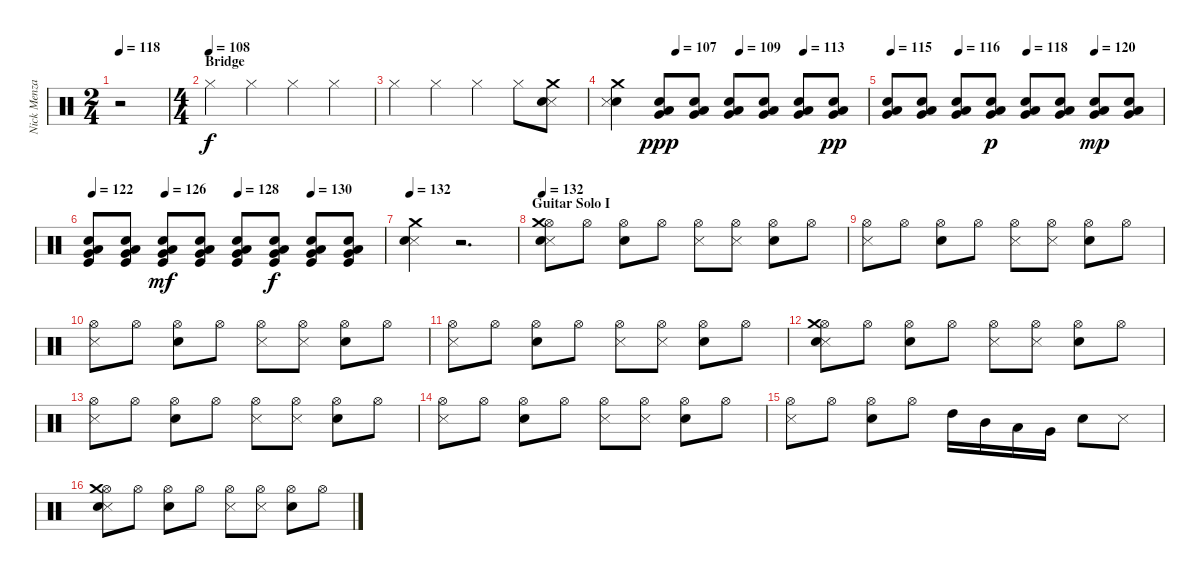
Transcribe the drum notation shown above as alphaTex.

\track ("Nick Menza (Drums)" "Nick Menza") {instrument percussion}
\staff {score}
\articulation defaults
\ts (2 4)
\tempo 118
\clef neutral
\ks c
r.2{dy f} |
\ts (4 4)
\section ("" "Bridge")
\tempo (108)
"Hi-Hat (closed)".4 "Hi-Hat (closed)".4 "Hi-Hat (closed)".4 "Hi-Hat (closed)".4 |
"Hi-Hat (closed)".4 "Hi-Hat (closed)".4 "Hi-Hat (closed)".4 "Hi-Hat (closed)".8 ("Metronome (hit)" "Electric Snare (hit)" "Crash medium (hit)").8 |
\tempo (107 0.25)
\tempo (109 0.5)
\tempo (113 0.75)
("Crash medium (hit)" "Electric Snare (hit)" "Metronome (hit)").4 ("Snare (hit) 2" "Low Tom (hit)" "Very Low Tom (hit)").8{dy ppp} ("Low Tom (hit)" "Snare (hit) 2" "Very Low Tom (hit)").8{volume 10} ("Low Tom (hit)" "Snare (hit) 2" "Very Low Tom (hit)").8{volume 10} ("Snare (hit) 2" "Very Low Tom (hit)" "Low Tom (hit)").8{volume 10} ("Low Tom (hit)" "Very Low Tom (hit)" "Snare (hit) 2").8{volume 10} ("Snare (hit) 2" "Low Tom (hit)" "Very Low Tom (hit)").8{dy pp volume 11} |
\tempo 115
\tempo (116 0.25)
\tempo (118 0.5)
\tempo (120 0.75)
("Snare (hit) 2" "Low Tom (hit)" "Very Low Tom (hit)").8{volume 11} ("Snare (hit) 2" "Very Low Tom (hit)" "Low Tom (hit)").8{volume 11} ("Very Low Tom (hit)" "Low Tom (hit)" "Snare (hit) 2").8{volume 12} ("Low Tom (hit)" "Very Low Tom (hit)" "Snare (hit) 2").8{dy p volume 12} ("Very Low Tom (hit)" "Snare (hit) 2" "Low Tom (hit)").8{volume 12} ("Snare (hit) 2" "Very Low Tom (hit)" "Low Tom (hit)").8{volume 12} ("Very Low Tom (hit)" "Low Tom (hit)" "Snare (hit) 2").8{dy mp volume 13} ("Snare (hit) 2" "Very Low Tom (hit)" "Low Tom (hit)").8{volume 13} |
\tempo 122
\tempo (126 0.25)
\tempo (128 0.5)
\tempo (130 0.75)
("Snare (hit) 2" "Low Tom (hit)" "Very Low Tom (hit)" "Kick (hit)").8{volume 13} ("Snare (hit) 2" "Very Low Tom (hit)" "Low Tom (hit)" "Kick (hit)").8{volume 14} ("Low Tom (hit)" "Kick (hit)" "Very Low Tom (hit)" "Snare (hit) 2").8{dy mf volume 14} ("Very Low Tom (hit)" "Low Tom (hit)" "Kick (hit)" "Electric Snare (hit)").8{volume 14} ("Snare (hit) 2" "Kick (hit)" "Very Low Tom (hit)" "Low Tom (hit)").8{volume 15} ("Kick (hit)" "Very Low Tom (hit)" "Low Tom (hit)" "Snare (hit) 2").8{dy f volume 15} ("Very Low Tom (hit)" "Low Tom (hit)" "Snare (hit) 2" "Kick (hit)").8{volume 15} ("Kick (hit)" "Snare (hit) 2" "Very Low Tom (hit)" "Low Tom (hit)").8{volume 16} |
\tempo 132
("Crash medium (hit)" "Metronome (hit)" "Electric Snare (hit)").4{volume 16} r.2{d} |
\section ("" "Guitar Solo I")
\tempo 132
("Metronome (hit)" "Electric Snare (hit)" "Hi-Hat (open)" "Crash medium (hit)").8 "Hi-Hat (open)".8 ("Electric Snare (hit)" "Hi-Hat (open)").8 "Hi-Hat (open)".8 ("Hi-Hat (open)" "Metronome (hit)").8 ("Hi-Hat (open)" "Metronome (hit)").8 ("Electric Snare (hit)" "Hi-Hat (open)").8 "Hi-Hat (open)".8 |
("Hi-Hat (open)" "Metronome (hit)").8 "Hi-Hat (open)".8 ("Hi-Hat (open)" "Electric Snare (hit)").8 "Hi-Hat (open)".8 ("Metronome (hit)" "Hi-Hat (open)").8 ("Metronome (hit)" "Hi-Hat (open)").8 ("Electric Snare (hit)" "Hi-Hat (open)").8 "Hi-Hat (open)".8 |
("Hi-Hat (open)" "Metronome (hit)").8 "Hi-Hat (open)".8 ("Electric Snare (hit)" "Hi-Hat (open)").8 "Hi-Hat (open)".8 ("Hi-Hat (open)" "Metronome (hit)").8 ("Hi-Hat (open)" "Metronome (hit)").8 ("Electric Snare (hit)" "Hi-Hat (open)").8 "Hi-Hat (open)".8 |
("Hi-Hat (open)" "Metronome (hit)").8 "Hi-Hat (open)".8 ("Hi-Hat (open)" "Electric Snare (hit)").8 "Hi-Hat (open)".8 ("Hi-Hat (open)" "Metronome (hit)").8 ("Metronome (hit)" "Hi-Hat (open)").8 ("Electric Snare (hit)" "Hi-Hat (open)").8 "Hi-Hat (open)".8 |
("Metronome (hit)" "Electric Snare (hit)" "Hi-Hat (open)" "Crash medium (hit)").8 "Hi-Hat (open)".8 ("Electric Snare (hit)" "Hi-Hat (open)").8 "Hi-Hat (open)".8 ("Metronome (hit)" "Hi-Hat (open)").8 ("Metronome (hit)" "Hi-Hat (open)").8 ("Electric Snare (hit)" "Hi-Hat (open)").8 "Hi-Hat (open)".8 |
("Hi-Hat (open)" "Metronome (hit)").8 "Hi-Hat (open)".8 ("Hi-Hat (open)" "Electric Snare (hit)").8 "Hi-Hat (open)".8 ("Metronome (hit)" "Hi-Hat (open)").8 ("Metronome (hit)" "Hi-Hat (open)").8 ("Electric Snare (hit)" "Hi-Hat (open)").8 "Hi-Hat (open)".8 |
("Hi-Hat (open)" "Metronome (hit)").8 "Hi-Hat (open)".8 ("Hi-Hat (open)" "Electric Snare (hit)").8 "Hi-Hat (open)".8 ("Hi-Hat (open)" "Metronome (hit)").8 ("Metronome (hit)" "Hi-Hat (open)").8 ("Hi-Hat (open)" "Electric Snare (hit)").8 "Hi-Hat (open)".8 |
("Hi-Hat (open)" "Metronome (hit)").8 "Hi-Hat (open)".8 ("Hi-Hat (open)" "Electric Snare (hit)").8 "Hi-Hat (open)".8 "High Tom (hit)".16 "Mid Tom (hit)".16 "Low Tom (hit)".16 "Very Low Tom (hit)".16 "Electric Snare (hit)".8 "Metronome (hit)".8 |
("Metronome (hit)" "Electric Snare (hit)" "Hi-Hat (open)" "Crash medium (hit)").8 "Hi-Hat (open)".8 ("Electric Snare (hit)" "Hi-Hat (open)").8 "Hi-Hat (open)".8 ("Metronome (hit)" "Hi-Hat (open)").8 ("Metronome (hit)" "Hi-Hat (open)").8 ("Electric Snare (hit)" "Hi-Hat (open)").8 "Hi-Hat (open)".8
